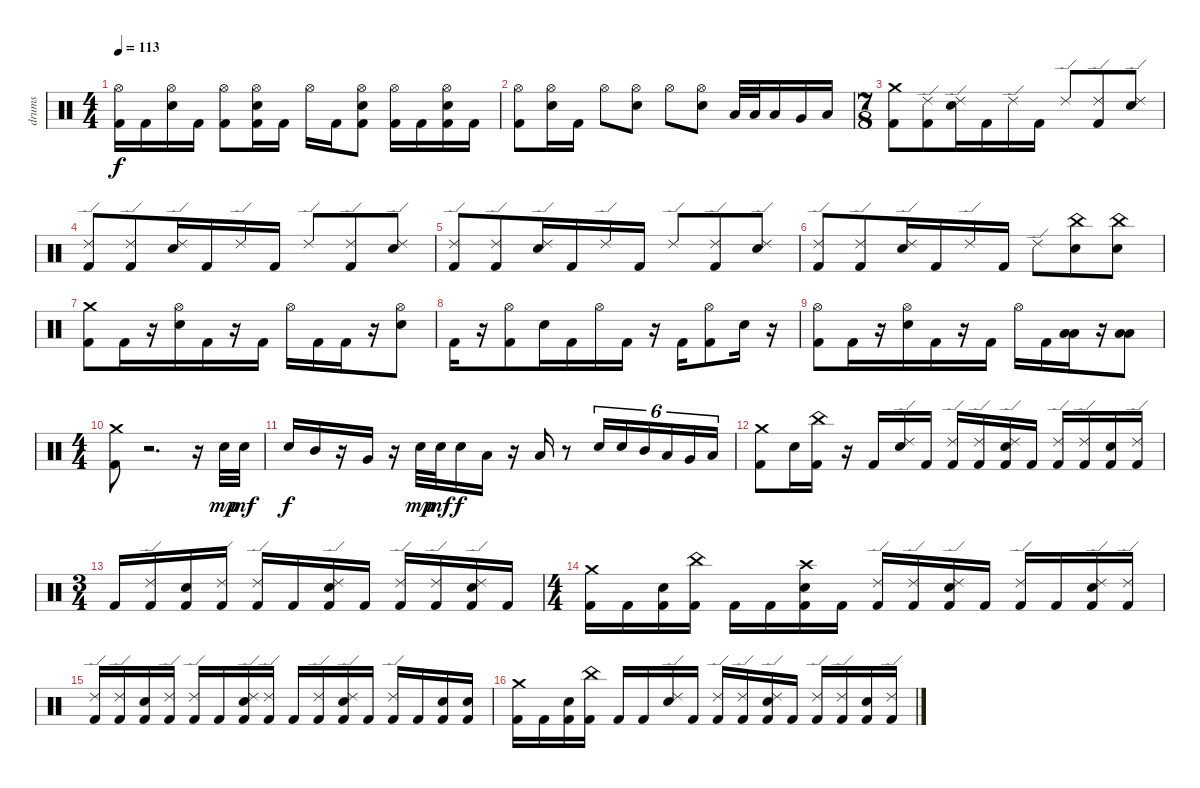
\track ("drums" "drums") {instrument percussion}
\staff {score}
\articulation defaults
\ts (4 4)
\tempo 113
\clef neutral
\ks c
("Hi-Hat (open)" "Kick (hit) 2").16{dy f} "Kick (hit) 2".16 ("Hi-Hat (open)" "Electric Snare (hit)").16 "Kick (hit) 2".16 ("Hi-Hat (open)" "Kick (hit) 2").8 ("Hi-Hat (open)" "Electric Snare (hit)" "Kick (hit) 2").16 "Kick (hit) 2".16 "Hi-Hat (open)".16 "Kick (hit) 2".16 ("Hi-Hat (open)" "Electric Snare (hit)" "Kick (hit) 2").8 ("Hi-Hat (open)" "Kick (hit) 2").16 "Kick (hit) 2".16 ("Hi-Hat (open)" "Electric Snare (hit)" "Kick (hit) 2").16 "Kick (hit) 2".16 |
("Hi-Hat (open)" "Kick (hit) 2").8 ("Hi-Hat (open)" "Electric Snare (hit)").16 "Kick (hit) 2".16 "Hi-Hat (open)".8 ("Hi-Hat (open)" "Electric Snare (hit)").8 "Hi-Hat (open)".8 ("Hi-Hat (open)" "Electric Snare (hit)").8 "Low Tom (hit)".32 "Low Tom (hit)".32 "Low Tom (hit)".16 "Very Low Tom (hit)".16 "Low Floor Tom (hit)".16 |
\ts (7 8)
("Kick (hit) 2" "Crash medium (hit)").8 ("Kick (hit) 2" "Ride (edge) 2").8 ("Electric Snare (hit)" "Ride (edge) 2").16 "Kick (hit) 2".16 "Ride (edge) 2".16 "Kick (hit) 2".16 "Ride (edge) 2".8 ("Kick (hit) 2" "Ride (edge) 2").8 ("Electric Snare (hit)" "Ride (edge) 2").8 |
("Ride (edge) 2" "Kick (hit) 2").8 ("Kick (hit) 2" "Ride (edge) 2").8 ("Electric Snare (hit)" "Ride (edge) 2").16 "Kick (hit) 2".16 "Ride (edge) 2".16 "Kick (hit) 2".16 "Ride (edge) 2".8 ("Kick (hit) 2" "Ride (edge) 2").8 ("Electric Snare (hit)" "Ride (edge) 2").8 |
("Ride (edge) 2" "Kick (hit) 2").8 ("Kick (hit) 2" "Ride (edge) 2").8 ("Electric Snare (hit)" "Ride (edge) 2").16 "Kick (hit) 2".16 "Ride (edge) 2".16 "Kick (hit) 2".16 "Ride (edge) 2".8 ("Kick (hit) 2" "Ride (edge) 2").8 ("Electric Snare (hit)" "Ride (edge) 2").8 |
("Ride (edge) 2" "Kick (hit) 2").8 ("Kick (hit) 2" "Ride (edge) 2").8 ("Electric Snare (hit)" "Ride (edge) 2").16 "Kick (hit) 2".16 "Ride (edge) 2".16 "Kick (hit) 2".16 "Ride (edge) 2".8 ("China (hit)" "Electric Snare (hit)").8 ("China (hit)" "Electric Snare (hit)").8 |
("Crash medium (hit)" "Kick (hit) 2").8 "Kick (hit) 2".16 r.16 ("Hi-Hat (open)" "Electric Snare (hit)").16 "Kick (hit) 2".16 r.16 "Kick (hit) 2".16 "Hi-Hat (open)".16 "Kick (hit) 2".16 "Kick (hit) 2".16 r.16 ("Hi-Hat (open)" "Electric Snare (hit)").8 |
"Kick (hit) 2".16 r.16 ("Hi-Hat (open)" "Kick (hit) 2").8 "Electric Snare (hit)".16 "Kick (hit) 2".16 "Hi-Hat (open)".16 "Kick (hit) 2".16 r.16 "Kick (hit) 2".16 ("Hi-Hat (open)" "Kick (hit) 2").8 "Electric Snare (hit)".16 r.16 |
("Hi-Hat (open)" "Kick (hit) 2").8 "Kick (hit) 2".16 r.16 ("Hi-Hat (open)" "Electric Snare (hit)").16 "Kick (hit) 2".16 r.16 "Kick (hit) 2".16 "Hi-Hat (open)".16 "Kick (hit) 2".16 ("Low Tom (hit)" "Low Floor Tom (hit)").16 r.16 ("Low Floor Tom (hit)" "Low Tom (hit)").8 |
\ts (4 4)
("Crash medium (hit)" "Kick (hit) 2").8 r.2{d} r.16 "Electric Snare (hit)".32{dy mp} "Electric Snare (hit)".32{dy mf} |
"Electric Snare (hit)".16{dy f} "Mid Tom (hit)".16 r.16 "Very Low Tom (hit)".16 r.16 "Electric Snare (hit)".32{dy mp} "Electric Snare (hit)".32{dy mf} "Electric Snare (hit)".16{dy f} "Low Tom (hit)".16 r.16 "Low Floor Tom (hit)".16 r.8 "Electric Snare (hit)".16{tu (6 4)} "Electric Snare (hit)".16{tu (6 4)} "Mid Tom (hit)".16{tu (6 4)} "Low Tom (hit)".16{tu (6 4)} "Very Low Tom (hit)".16{tu (6 4)} "Low Floor Tom (hit)".16{tu (6 4)} |
("Crash medium (hit)" "Kick (hit) 2").8 "Electric Snare (hit)".16 ("China (hit)" "Kick (hit) 2").16 r.16 "Kick (hit) 2".16 ("Ride (edge) 2" "Electric Snare (hit)").16 "Kick (hit) 2".16 ("Ride (edge) 2" "Kick (hit) 2").16 ("Ride (edge) 2" "Kick (hit) 2").16 ("Ride (edge) 2" "Kick (hit) 2" "Electric Snare (hit)").16 "Kick (hit) 2".16 ("Ride (edge) 2" "Kick (hit) 2").16 ("Ride (edge) 2" "Kick (hit) 2").16 ("Electric Snare (hit)" "Kick (hit) 2").16 ("Ride (edge) 2" "Kick (hit) 2").16 |
\ts (3 4)
"Kick (hit) 2".16 ("Ride (edge) 2" "Kick (hit) 2").16 ("Electric Snare (hit)" "Kick (hit) 2").16 ("Ride (edge) 2" "Kick (hit) 2").16 ("Ride (edge) 2" "Kick (hit) 2").16 "Kick (hit) 2".16 ("Ride (edge) 2" "Electric Snare (hit)" "Kick (hit) 2").16 "Kick (hit) 2".16 ("Ride (edge) 2" "Kick (hit) 2").16 ("Ride (edge) 2" "Kick (hit) 2").16 ("Ride (edge) 2" "Electric Snare (hit)" "Kick (hit) 2").16 "Kick (hit) 2".16 |
\ts (4 4)
("Crash medium (hit)" "Kick (hit) 2").16 "Kick (hit) 2".16 ("Electric Snare (hit)" "Kick (hit) 2").16 ("China (hit)" "Kick (hit) 2").16 "Kick (hit) 2".16 "Kick (hit) 2".16 ("Crash high (hit)" "Electric Snare (hit)" "Kick (hit) 2").16 "Kick (hit) 2".16 ("Ride (edge) 2" "Kick (hit) 2").16 ("Ride (edge) 2" "Kick (hit) 2").16 ("Ride (edge) 2" "Electric Snare (hit)" "Kick (hit) 2").16 "Kick (hit) 2".16 ("Ride (edge) 2" "Kick (hit) 2").16 "Kick (hit) 2".16 ("Ride (edge) 2" "Electric Snare (hit)" "Kick (hit) 2").16 ("Ride (edge) 2" "Kick (hit) 2").16 |
("Ride (edge) 2" "Kick (hit) 2").16 ("Ride (edge) 2" "Kick (hit) 2").16 ("Electric Snare (hit)" "Kick (hit) 2").16 ("Ride (edge) 2" "Kick (hit) 2").16 ("Ride (edge) 2" "Kick (hit) 2").16 "Kick (hit) 2".16 ("Ride (edge) 2" "Electric Snare (hit)" "Kick (hit) 2").16 ("Ride (edge) 2" "Kick (hit) 2").16 "Kick (hit) 2".16 ("Ride (edge) 2" "Kick (hit) 2").16 ("Ride (edge) 2" "Electric Snare (hit)" "Kick (hit) 2").16 "Kick (hit) 2".16 ("Ride (edge) 2" "Kick (hit) 2").16 "Kick (hit) 2".16 ("Electric Snare (hit)" "Kick (hit) 2").16 ("Electric Snare (hit)" "Kick (hit) 2").16 |
("Crash medium (hit)" "Kick (hit) 2").16 "Kick (hit) 2".16 ("Kick (hit) 2" "Electric Snare (hit)").16 ("China (hit)" "Kick (hit) 2").16 "Kick (hit) 2".16 "Kick (hit) 2".16 ("Ride (edge) 2" "Electric Snare (hit)").16 "Kick (hit) 2".16 ("Ride (edge) 2" "Kick (hit) 2").16 ("Ride (edge) 2" "Kick (hit) 2").16 ("Ride (edge) 2" "Kick (hit) 2" "Electric Snare (hit)").16 "Kick (hit) 2".16 ("Ride (edge) 2" "Kick (hit) 2").16 ("Ride (edge) 2" "Kick (hit) 2").16 ("Electric Snare (hit)" "Kick (hit) 2").16 ("Ride (edge) 2" "Kick (hit) 2").16
